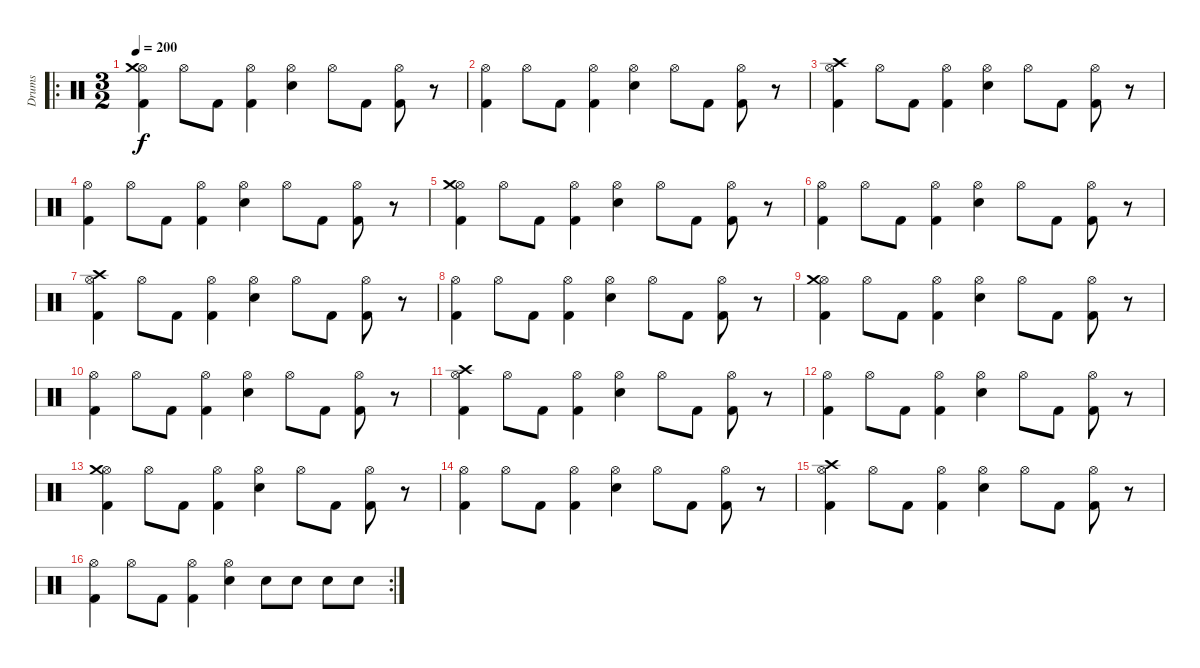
\track ("Drums" "Drums") {instrument percussion}
\staff {score}
\articulation defaults
\ro
\ts (3 2)
\tempo 200
\clef neutral
\ks c
("Kick (hit) 2" "Hi-Hat (open)" "Crash medium (hit)").4{dy f} "Hi-Hat (open)".8 "Kick (hit) 2".8 ("Kick (hit) 2" "Hi-Hat (open)").4 ("Hi-Hat (open)" "Snare (hit) 2").4 "Hi-Hat (open)".8 "Kick (hit) 2".8 ("Kick (hit) 2" "Hi-Hat (open)").8 r.8 |
("Kick (hit) 2" "Hi-Hat (open)").4 "Hi-Hat (open)".8 "Kick (hit) 2".8 ("Kick (hit) 2" "Hi-Hat (open)").4 ("Hi-Hat (open)" "Snare (hit) 2").4 "Hi-Hat (open)".8 "Kick (hit) 2".8 ("Kick (hit) 2" "Hi-Hat (open)").8 r.8 |
("Kick (hit) 2" "Hi-Hat (open)" "Crash high (hit)").4 "Hi-Hat (open)".8 "Kick (hit) 2".8 ("Kick (hit) 2" "Hi-Hat (open)").4 ("Hi-Hat (open)" "Snare (hit) 2").4 "Hi-Hat (open)".8 "Kick (hit) 2".8 ("Kick (hit) 2" "Hi-Hat (open)").8 r.8 |
("Kick (hit) 2" "Hi-Hat (open)").4 "Hi-Hat (open)".8 "Kick (hit) 2".8 ("Kick (hit) 2" "Hi-Hat (open)").4 ("Hi-Hat (open)" "Snare (hit) 2").4 "Hi-Hat (open)".8 "Kick (hit) 2".8 ("Kick (hit) 2" "Hi-Hat (open)").8 r.8 |
("Kick (hit) 2" "Hi-Hat (open)" "Crash medium (hit)").4 "Hi-Hat (open)".8 "Kick (hit) 2".8 ("Kick (hit) 2" "Hi-Hat (open)").4 ("Hi-Hat (open)" "Snare (hit) 2").4 "Hi-Hat (open)".8 "Kick (hit) 2".8 ("Kick (hit) 2" "Hi-Hat (open)").8 r.8 |
("Kick (hit) 2" "Hi-Hat (open)").4 "Hi-Hat (open)".8 "Kick (hit) 2".8 ("Kick (hit) 2" "Hi-Hat (open)").4 ("Hi-Hat (open)" "Snare (hit) 2").4 "Hi-Hat (open)".8 "Kick (hit) 2".8 ("Kick (hit) 2" "Hi-Hat (open)").8 r.8 |
("Kick (hit) 2" "Hi-Hat (open)" "Crash high (hit)").4 "Hi-Hat (open)".8 "Kick (hit) 2".8 ("Kick (hit) 2" "Hi-Hat (open)").4 ("Hi-Hat (open)" "Snare (hit) 2").4 "Hi-Hat (open)".8 "Kick (hit) 2".8 ("Kick (hit) 2" "Hi-Hat (open)").8 r.8 |
("Kick (hit) 2" "Hi-Hat (open)").4 "Hi-Hat (open)".8 "Kick (hit) 2".8 ("Kick (hit) 2" "Hi-Hat (open)").4 ("Hi-Hat (open)" "Snare (hit) 2").4 "Hi-Hat (open)".8 "Kick (hit) 2".8 ("Kick (hit) 2" "Hi-Hat (open)").8 r.8 |
("Kick (hit) 2" "Hi-Hat (open)" "Crash medium (hit)").4 "Hi-Hat (open)".8 "Kick (hit) 2".8 ("Kick (hit) 2" "Hi-Hat (open)").4 ("Hi-Hat (open)" "Snare (hit) 2").4 "Hi-Hat (open)".8 "Kick (hit) 2".8 ("Kick (hit) 2" "Hi-Hat (open)").8 r.8 |
("Kick (hit) 2" "Hi-Hat (open)").4 "Hi-Hat (open)".8 "Kick (hit) 2".8 ("Kick (hit) 2" "Hi-Hat (open)").4 ("Hi-Hat (open)" "Snare (hit) 2").4 "Hi-Hat (open)".8 "Kick (hit) 2".8 ("Kick (hit) 2" "Hi-Hat (open)").8 r.8 |
("Kick (hit) 2" "Hi-Hat (open)" "Crash high (hit)").4 "Hi-Hat (open)".8 "Kick (hit) 2".8 ("Kick (hit) 2" "Hi-Hat (open)").4 ("Hi-Hat (open)" "Snare (hit) 2").4 "Hi-Hat (open)".8 "Kick (hit) 2".8 ("Kick (hit) 2" "Hi-Hat (open)").8 r.8 |
("Kick (hit) 2" "Hi-Hat (open)").4 "Hi-Hat (open)".8 "Kick (hit) 2".8 ("Kick (hit) 2" "Hi-Hat (open)").4 ("Hi-Hat (open)" "Snare (hit) 2").4 "Hi-Hat (open)".8 "Kick (hit) 2".8 ("Kick (hit) 2" "Hi-Hat (open)").8 r.8 |
("Kick (hit) 2" "Hi-Hat (open)" "Crash medium (hit)").4 "Hi-Hat (open)".8 "Kick (hit) 2".8 ("Kick (hit) 2" "Hi-Hat (open)").4 ("Hi-Hat (open)" "Snare (hit) 2").4 "Hi-Hat (open)".8 "Kick (hit) 2".8 ("Kick (hit) 2" "Hi-Hat (open)").8 r.8 |
("Kick (hit) 2" "Hi-Hat (open)").4 "Hi-Hat (open)".8 "Kick (hit) 2".8 ("Kick (hit) 2" "Hi-Hat (open)").4 ("Hi-Hat (open)" "Snare (hit) 2").4 "Hi-Hat (open)".8 "Kick (hit) 2".8 ("Kick (hit) 2" "Hi-Hat (open)").8 r.8 |
("Kick (hit) 2" "Hi-Hat (open)" "Crash high (hit)").4 "Hi-Hat (open)".8 "Kick (hit) 2".8 ("Kick (hit) 2" "Hi-Hat (open)").4 ("Hi-Hat (open)" "Snare (hit) 2").4 "Hi-Hat (open)".8 "Kick (hit) 2".8 ("Kick (hit) 2" "Hi-Hat (open)").8 r.8 |
\rc 2
("Kick (hit) 2" "Hi-Hat (open)").4 "Hi-Hat (open)".8 "Kick (hit) 2".8 ("Kick (hit) 2" "Hi-Hat (open)").4 ("Hi-Hat (open)" "Snare (hit) 2").4 "Snare (hit) 2".8 "Snare (hit) 2".8 "Snare (hit) 2".8 "Snare (hit) 2".8
